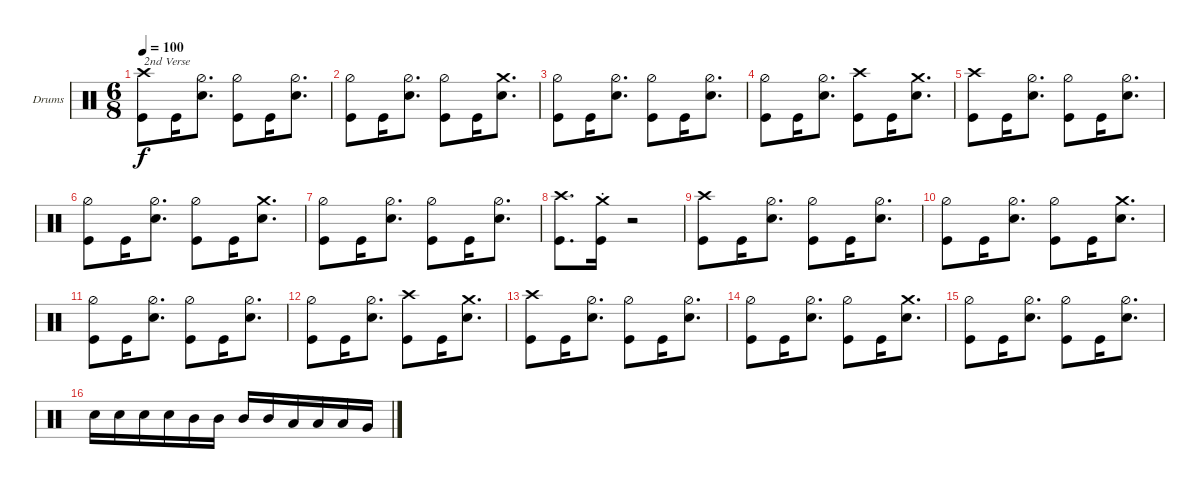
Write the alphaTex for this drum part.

\defaultSystemsLayout 4
\bracketExtendMode groupsimilarinstruments
\firstSystemTrackNameOrientation horizontal
\otherSystemsTrackNameOrientation horizontal
\track ("Stefan Schwarzmann" "Drums") {instrument percussion}
\staff {score}
\articulation defaults
\ts (6 8)
\tempo 100
\clef neutral
\ks c
("Kick (hit)" "Crash high (hit)").8{txt "2nd Verse" dy f} "Kick (hit)".16 ("Snare (hit) 2" "Hi-Hat (half)").8{d} ("Kick (hit)" "Hi-Hat (half)").8 "Kick (hit)".16 ("Snare (hit) 2" "Hi-Hat (half)").8{d} |
("Kick (hit)" "Hi-Hat (half)").8 "Kick (hit)".16 ("Snare (hit) 2" "Hi-Hat (half)").8{d} ("Kick (hit)" "Hi-Hat (half)").8 "Kick (hit)".16 ("Snare (hit) 2" "Crash medium (hit)").8{d} |
("Kick (hit)" "Hi-Hat (half)").8 "Kick (hit)".16 ("Snare (hit) 2" "Hi-Hat (half)").8{d} ("Kick (hit)" "Hi-Hat (half)").8 "Kick (hit)".16 ("Snare (hit) 2" "Hi-Hat (half)").8{d} |
("Kick (hit)" "Hi-Hat (half)").8 "Kick (hit)".16 ("Snare (hit) 2" "Hi-Hat (half)").8{d} ("Kick (hit)" "Crash high (hit)").8 "Kick (hit)".16 ("Snare (hit) 2" "Crash medium (hit)").8{d} |
("Kick (hit)" "Crash high (hit)").8 "Kick (hit)".16 ("Snare (hit) 2" "Hi-Hat (half)").8{d} ("Kick (hit)" "Hi-Hat (half)").8 "Kick (hit)".16 ("Snare (hit) 2" "Hi-Hat (half)").8{d} |
("Kick (hit)" "Hi-Hat (half)").8 "Kick (hit)".16 ("Snare (hit) 2" "Hi-Hat (half)").8{d} ("Kick (hit)" "Hi-Hat (half)").8 "Kick (hit)".16 ("Snare (hit) 2" "Crash medium (hit)").8{d} |
("Kick (hit)" "Hi-Hat (half)").8 "Kick (hit)".16 ("Snare (hit) 2" "Hi-Hat (half)").8{d} ("Kick (hit)" "Hi-Hat (half)").8 "Kick (hit)".16 ("Snare (hit) 2" "Hi-Hat (half)").8{d} |
("Kick (hit)" "Crash high (hit)").8{d} ("Crash medium (hit)"{st} "Kick (hit)"{st}).16 r.2 |
("Kick (hit)" "Crash high (hit)").8 "Kick (hit)".16 ("Snare (hit) 2" "Hi-Hat (half)").8{d} ("Kick (hit)" "Hi-Hat (half)").8 "Kick (hit)".16 ("Snare (hit) 2" "Hi-Hat (half)").8{d} |
("Kick (hit)" "Hi-Hat (half)").8 "Kick (hit)".16 ("Snare (hit) 2" "Hi-Hat (half)").8{d} ("Kick (hit)" "Hi-Hat (half)").8 "Kick (hit)".16 ("Snare (hit) 2" "Crash medium (hit)").8{d} |
("Kick (hit)" "Hi-Hat (half)").8 "Kick (hit)".16 ("Snare (hit) 2" "Hi-Hat (half)").8{d} ("Kick (hit)" "Hi-Hat (half)").8 "Kick (hit)".16 ("Snare (hit) 2" "Hi-Hat (half)").8{d} |
("Kick (hit)" "Hi-Hat (half)").8 "Kick (hit)".16 ("Snare (hit) 2" "Hi-Hat (half)").8{d} ("Kick (hit)" "Crash high (hit)").8 "Kick (hit)".16 ("Snare (hit) 2" "Crash medium (hit)").8{d} |
("Kick (hit)" "Crash high (hit)").8 "Kick (hit)".16 ("Snare (hit) 2" "Hi-Hat (half)").8{d} ("Kick (hit)" "Hi-Hat (half)").8 "Kick (hit)".16 ("Snare (hit) 2" "Hi-Hat (half)").8{d} |
("Kick (hit)" "Hi-Hat (half)").8 "Kick (hit)".16 ("Snare (hit) 2" "Hi-Hat (half)").8{d} ("Kick (hit)" "Hi-Hat (half)").8 "Kick (hit)".16 ("Snare (hit) 2" "Crash medium (hit)").8{d} |
("Kick (hit)" "Hi-Hat (half)").8 "Kick (hit)".16 ("Snare (hit) 2" "Hi-Hat (half)").8{d} ("Kick (hit)" "Hi-Hat (half)").8 "Kick (hit)".16 ("Snare (hit) 2" "Hi-Hat (half)").8{d} |
"Snare (hit) 2".16 "Snare (hit) 2".16 "Snare (hit) 2".16 "Snare (hit) 2".16 "Mid Tom (hit)".16 "Mid Tom (hit)".16 "Mid Tom (hit)".16 "Mid Tom (hit)".16 "Low Tom (hit)".16 "Low Tom (hit)".16 "Low Tom (hit)".16 "Very Low Tom (hit)".16
